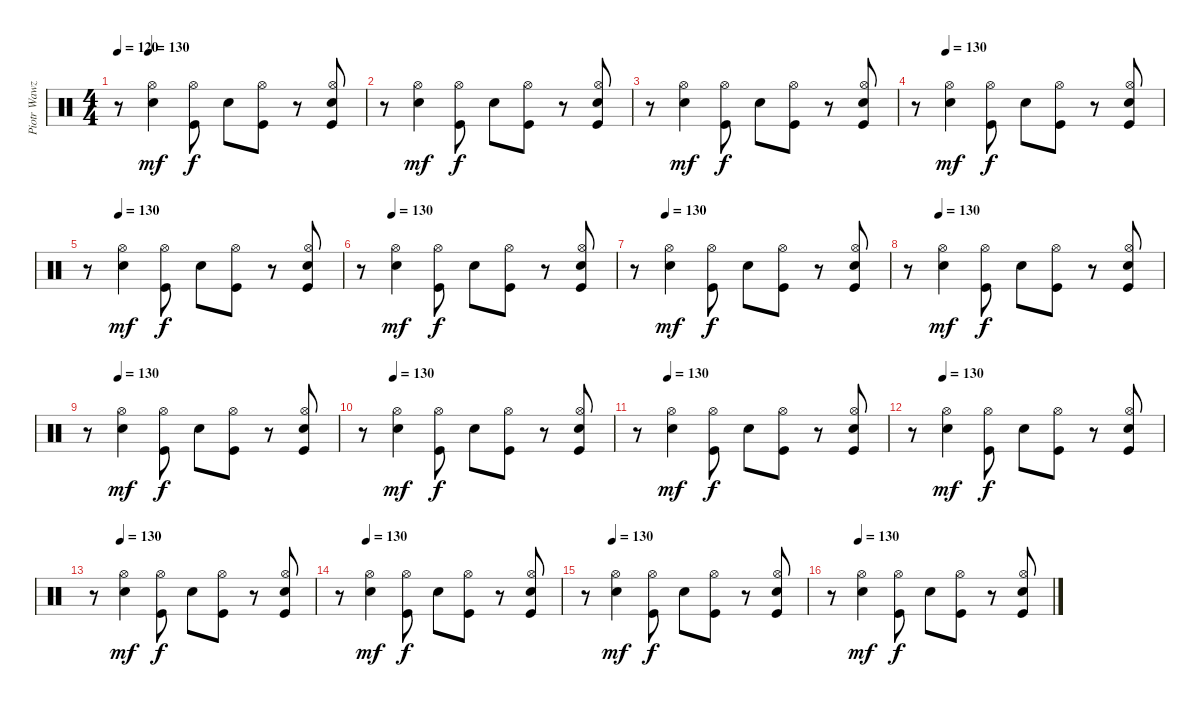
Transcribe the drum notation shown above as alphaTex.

\track ("Piotr Wawzeniuk (Drums)" "Piotr Wawz") {instrument percussion}
\staff {score}
\articulation defaults
\ts (4 4)
\tempo 120
\tempo (130 0.125)
\clef neutral
\ks c
r.8{dy f} ("Electric Snare (hit)" "Hi-Hat (open)").4{dy mf} ("Kick (hit)" "Hi-Hat (open)").8{dy f} "Electric Snare (hit)".8 ("Kick (hit)" "Hi-Hat (open)").8 r.8 ("Kick (hit)" "Electric Snare (hit)" "Hi-Hat (open)").8 |
r.8 ("Electric Snare (hit)" "Hi-Hat (open)").4{dy mf} ("Kick (hit)" "Hi-Hat (open)").8{dy f} "Electric Snare (hit)".8 ("Kick (hit)" "Hi-Hat (open)").8 r.8 ("Kick (hit)" "Electric Snare (hit)" "Hi-Hat (open)").8 |
r.8 ("Electric Snare (hit)" "Hi-Hat (open)").4{dy mf} ("Kick (hit)" "Hi-Hat (open)").8{dy f} "Electric Snare (hit)".8 ("Kick (hit)" "Hi-Hat (open)").8 r.8 ("Kick (hit)" "Electric Snare (hit)" "Hi-Hat (open)").8 |
\tempo (130 0.125)
r.8 ("Electric Snare (hit)" "Hi-Hat (open)").4{dy mf} ("Kick (hit)" "Hi-Hat (open)").8{dy f} "Electric Snare (hit)".8 ("Kick (hit)" "Hi-Hat (open)").8 r.8 ("Kick (hit)" "Electric Snare (hit)" "Hi-Hat (open)").8 |
\tempo (130 0.125)
r.8 ("Electric Snare (hit)" "Hi-Hat (open)").4{dy mf} ("Kick (hit)" "Hi-Hat (open)").8{dy f} "Electric Snare (hit)".8 ("Kick (hit)" "Hi-Hat (open)").8 r.8 ("Kick (hit)" "Electric Snare (hit)" "Hi-Hat (open)").8 |
\tempo (130 0.125)
r.8 ("Electric Snare (hit)" "Hi-Hat (open)").4{dy mf} ("Kick (hit)" "Hi-Hat (open)").8{dy f} "Electric Snare (hit)".8 ("Kick (hit)" "Hi-Hat (open)").8 r.8 ("Kick (hit)" "Electric Snare (hit)" "Hi-Hat (open)").8 |
\tempo (130 0.125)
r.8 ("Electric Snare (hit)" "Hi-Hat (open)").4{dy mf} ("Kick (hit)" "Hi-Hat (open)").8{dy f} "Electric Snare (hit)".8 ("Kick (hit)" "Hi-Hat (open)").8 r.8 ("Kick (hit)" "Electric Snare (hit)" "Hi-Hat (open)").8 |
\tempo (130 0.125)
r.8 ("Electric Snare (hit)" "Hi-Hat (open)").4{dy mf} ("Kick (hit)" "Hi-Hat (open)").8{dy f} "Electric Snare (hit)".8 ("Kick (hit)" "Hi-Hat (open)").8 r.8 ("Kick (hit)" "Electric Snare (hit)" "Hi-Hat (open)").8 |
\tempo (130 0.125)
r.8 ("Electric Snare (hit)" "Hi-Hat (open)").4{dy mf} ("Kick (hit)" "Hi-Hat (open)").8{dy f} "Electric Snare (hit)".8 ("Kick (hit)" "Hi-Hat (open)").8 r.8 ("Kick (hit)" "Electric Snare (hit)" "Hi-Hat (open)").8 |
\tempo (130 0.125)
r.8 ("Electric Snare (hit)" "Hi-Hat (open)").4{dy mf} ("Kick (hit)" "Hi-Hat (open)").8{dy f} "Electric Snare (hit)".8 ("Kick (hit)" "Hi-Hat (open)").8 r.8 ("Kick (hit)" "Electric Snare (hit)" "Hi-Hat (open)").8 |
\tempo (130 0.125)
r.8 ("Electric Snare (hit)" "Hi-Hat (open)").4{dy mf} ("Kick (hit)" "Hi-Hat (open)").8{dy f} "Electric Snare (hit)".8 ("Kick (hit)" "Hi-Hat (open)").8 r.8 ("Kick (hit)" "Electric Snare (hit)" "Hi-Hat (open)").8 |
\tempo (130 0.125)
r.8 ("Electric Snare (hit)" "Hi-Hat (open)").4{dy mf} ("Kick (hit)" "Hi-Hat (open)").8{dy f} "Electric Snare (hit)".8 ("Kick (hit)" "Hi-Hat (open)").8 r.8 ("Kick (hit)" "Electric Snare (hit)" "Hi-Hat (open)").8 |
\tempo (130 0.125)
r.8 ("Electric Snare (hit)" "Hi-Hat (open)").4{dy mf} ("Kick (hit)" "Hi-Hat (open)").8{dy f} "Electric Snare (hit)".8 ("Kick (hit)" "Hi-Hat (open)").8 r.8 ("Kick (hit)" "Electric Snare (hit)" "Hi-Hat (open)").8 |
\tempo (130 0.125)
r.8 ("Electric Snare (hit)" "Hi-Hat (open)").4{dy mf} ("Kick (hit)" "Hi-Hat (open)").8{dy f} "Electric Snare (hit)".8 ("Kick (hit)" "Hi-Hat (open)").8 r.8 ("Kick (hit)" "Electric Snare (hit)" "Hi-Hat (open)").8 |
\tempo (130 0.125)
r.8 ("Electric Snare (hit)" "Hi-Hat (open)").4{dy mf} ("Kick (hit)" "Hi-Hat (open)").8{dy f} "Electric Snare (hit)".8 ("Kick (hit)" "Hi-Hat (open)").8 r.8 ("Kick (hit)" "Electric Snare (hit)" "Hi-Hat (open)").8 |
\tempo (130 0.125)
r.8 ("Electric Snare (hit)" "Hi-Hat (open)").4{dy mf} ("Kick (hit)" "Hi-Hat (open)").8{dy f} "Electric Snare (hit)".8 ("Kick (hit)" "Hi-Hat (open)").8 r.8 ("Kick (hit)" "Electric Snare (hit)" "Hi-Hat (open)").8
